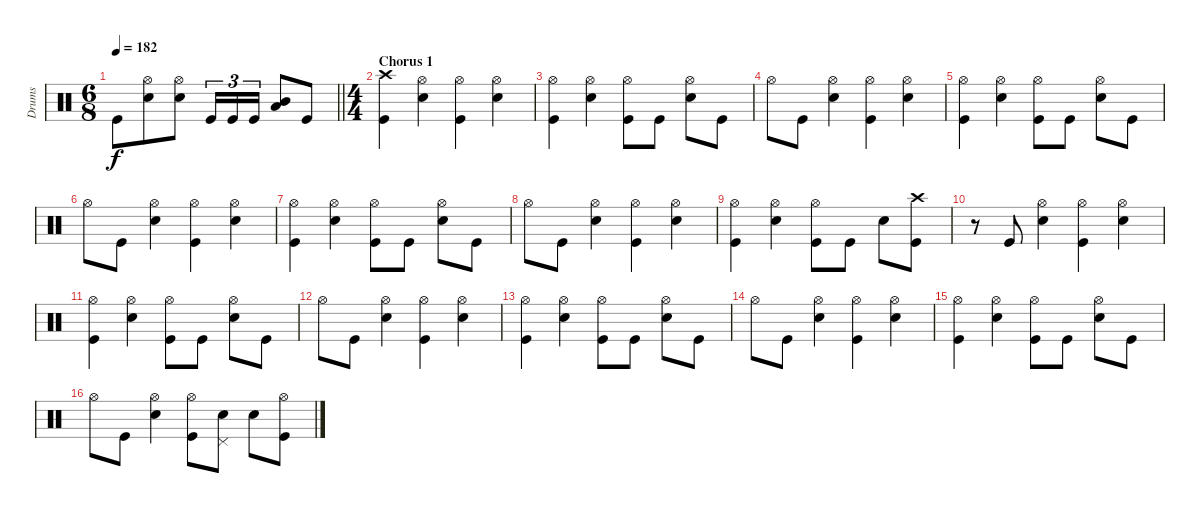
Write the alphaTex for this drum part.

\track ("Drums" "Drums") {instrument percussion}
\staff {score}
\articulation defaults
\ts (6 8)
\tempo 182
\clef neutral
\barLineRight lightlight
\ks c "Kick (hit)".8{dy f}
("Hi-Hat (open)" "Electric Snare (hit)").8 ("Hi-Hat (open)" "Electric Snare (hit)").8 "Kick (hit)".16{tu (3 2)} "Kick (hit)".16{tu (3 2)} "Kick (hit)".16{tu (3 2)} ("Low Tom (hit)" "Mid Tom (hit)").8 "Kick (hit)".8 |
\ts (4 4)
\section ("" "Chorus 1")
("Crash high (hit)" "Kick (hit)").4 ("Hi-Hat (open)" "Electric Snare (hit)").4 ("Hi-Hat (open)" "Kick (hit)").4 ("Hi-Hat (open)" "Electric Snare (hit)").4 |
("Hi-Hat (open)" "Kick (hit)").4 ("Hi-Hat (open)" "Electric Snare (hit)").4 ("Hi-Hat (open)" "Kick (hit)").8 "Kick (hit)".8 ("Hi-Hat (open)" "Electric Snare (hit)").8 "Kick (hit)".8 |
"Hi-Hat (open)".8 "Kick (hit)".8 ("Hi-Hat (open)" "Electric Snare (hit)").4 ("Kick (hit)" "Hi-Hat (open)").4 ("Hi-Hat (open)" "Electric Snare (hit)").4 |
("Hi-Hat (open)" "Kick (hit)").4 ("Hi-Hat (open)" "Electric Snare (hit)").4 ("Hi-Hat (open)" "Kick (hit)").8 "Kick (hit)".8 ("Hi-Hat (open)" "Electric Snare (hit)").8 "Kick (hit)".8 |
"Hi-Hat (open)".8 "Kick (hit)".8 ("Hi-Hat (open)" "Electric Snare (hit)").4 ("Kick (hit)" "Hi-Hat (open)").4 ("Hi-Hat (open)" "Electric Snare (hit)").4 |
("Hi-Hat (open)" "Kick (hit)").4 ("Hi-Hat (open)" "Electric Snare (hit)").4 ("Hi-Hat (open)" "Kick (hit)").8 "Kick (hit)".8 ("Hi-Hat (open)" "Electric Snare (hit)").8 "Kick (hit)".8 |
"Hi-Hat (open)".8 "Kick (hit)".8 ("Hi-Hat (open)" "Electric Snare (hit)").4 ("Kick (hit)" "Hi-Hat (open)").4 ("Hi-Hat (open)" "Electric Snare (hit)").4 |
("Hi-Hat (open)" "Kick (hit)").4 ("Hi-Hat (open)" "Electric Snare (hit)").4 ("Hi-Hat (open)" "Kick (hit)").8 "Kick (hit)".8 "Electric Snare (hit)".8 ("Crash high (hit)" "Kick (hit)").8 |
r.8 "Kick (hit)".8 ("Hi-Hat (open)" "Electric Snare (hit)").4 ("Kick (hit)" "Hi-Hat (open)").4 ("Hi-Hat (open)" "Electric Snare (hit)").4 |
("Hi-Hat (open)" "Kick (hit)").4 ("Hi-Hat (open)" "Electric Snare (hit)").4 ("Hi-Hat (open)" "Kick (hit)").8 "Kick (hit)".8 ("Hi-Hat (open)" "Electric Snare (hit)").8 "Kick (hit)".8 |
"Hi-Hat (open)".8 "Kick (hit)".8 ("Hi-Hat (open)" "Electric Snare (hit)").4 ("Kick (hit)" "Hi-Hat (open)").4 ("Hi-Hat (open)" "Electric Snare (hit)").4 |
("Hi-Hat (open)" "Kick (hit)").4 ("Hi-Hat (open)" "Electric Snare (hit)").4 ("Hi-Hat (open)" "Kick (hit)").8 "Kick (hit)".8 ("Hi-Hat (open)" "Electric Snare (hit)").8 "Kick (hit)".8 |
"Hi-Hat (open)".8 "Kick (hit)".8 ("Hi-Hat (open)" "Electric Snare (hit)").4 ("Kick (hit)" "Hi-Hat (open)").4 ("Hi-Hat (open)" "Electric Snare (hit)").4 |
("Hi-Hat (open)" "Kick (hit)").4 ("Hi-Hat (open)" "Electric Snare (hit)").4 ("Hi-Hat (open)" "Kick (hit)").8 "Kick (hit)".8 ("Hi-Hat (open)" "Electric Snare (hit)").8 "Kick (hit)".8 |
"Hi-Hat (open)".8 "Kick (hit)".8 ("Hi-Hat (open)" "Electric Snare (hit)").4 ("Hi-Hat (open)" "Kick (hit)").8 ("Pedal Hi-Hat (hit)" "Electric Snare (hit)").8 "Electric Snare (hit)".8 ("Hi-Hat (open)" "Kick (hit)").8
